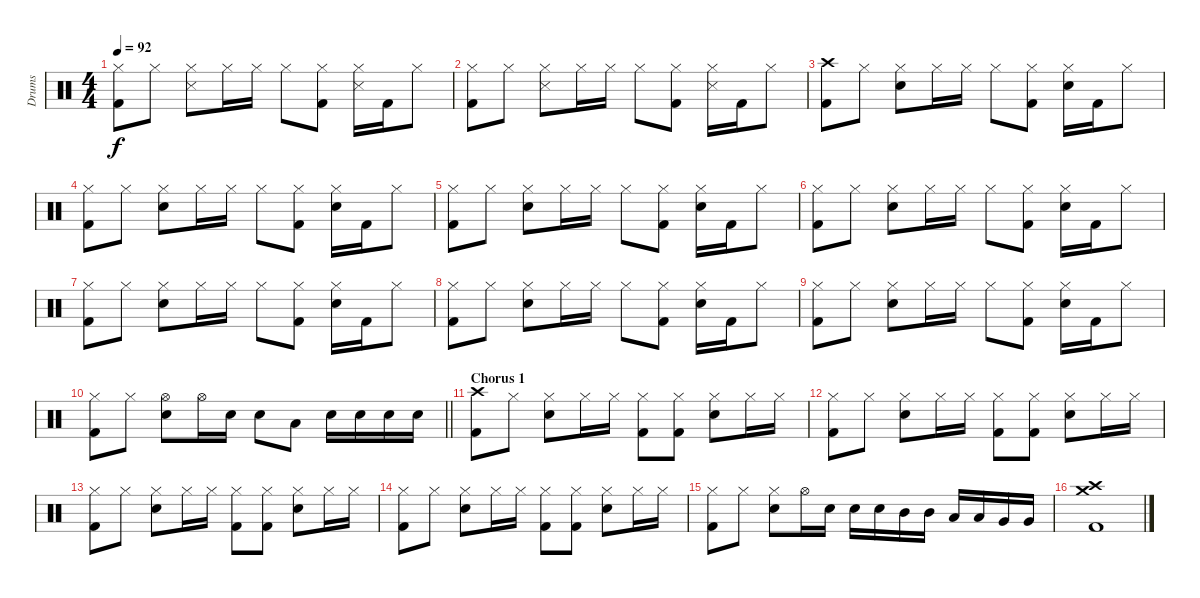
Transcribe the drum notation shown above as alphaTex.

\track ("Drums" "Drums") {instrument percussion}
\staff {score}
\articulation defaults
\ts (4 4)
\tempo 92
\clef neutral
\ks c
("Hi-Hat (closed)" "Kick (hit) 2").8{dy f} "Hi-Hat (closed)".8 ("Hi-Hat (closed)" "Snare (side stick) 3").8 "Hi-Hat (closed)".16 "Hi-Hat (closed)".16 "Hi-Hat (closed)".8 ("Hi-Hat (closed)" "Kick (hit) 2").8 ("Hi-Hat (closed)" "Snare (side stick) 3").16 "Kick (hit) 2".16 "Hi-Hat (closed)".8 |
("Hi-Hat (closed)" "Kick (hit) 2").8 "Hi-Hat (closed)".8 ("Hi-Hat (closed)" "Snare (side stick) 3").8 "Hi-Hat (closed)".16 "Hi-Hat (closed)".16 "Hi-Hat (closed)".8 ("Hi-Hat (closed)" "Kick (hit) 2").8 ("Hi-Hat (closed)" "Snare (side stick) 3").16 "Kick (hit) 2".16 "Hi-Hat (closed)".8 |
("Crash high (hit)" "Kick (hit) 2").8 "Hi-Hat (closed)".8 ("Hi-Hat (closed)" "Snare (hit) 2").8 "Hi-Hat (closed)".16 "Hi-Hat (closed)".16 "Hi-Hat (closed)".8 ("Hi-Hat (closed)" "Kick (hit) 2").8 ("Hi-Hat (closed)" "Snare (hit) 2").16 "Kick (hit) 2".16 "Hi-Hat (closed)".8 |
("Hi-Hat (closed)" "Kick (hit) 2").8 "Hi-Hat (closed)".8 ("Hi-Hat (closed)" "Snare (hit) 2").8 "Hi-Hat (closed)".16 "Hi-Hat (closed)".16 "Hi-Hat (closed)".8 ("Hi-Hat (closed)" "Kick (hit) 2").8 ("Hi-Hat (closed)" "Snare (hit) 2").16 "Kick (hit) 2".16 "Hi-Hat (closed)".8 |
("Hi-Hat (closed)" "Kick (hit) 2").8 "Hi-Hat (closed)".8 ("Hi-Hat (closed)" "Snare (hit) 2").8 "Hi-Hat (closed)".16 "Hi-Hat (closed)".16 "Hi-Hat (closed)".8 ("Hi-Hat (closed)" "Kick (hit) 2").8 ("Hi-Hat (closed)" "Snare (hit) 2").16 "Kick (hit) 2".16 "Hi-Hat (closed)".8 |
("Hi-Hat (closed)" "Kick (hit) 2").8 "Hi-Hat (closed)".8 ("Hi-Hat (closed)" "Snare (hit) 2").8 "Hi-Hat (closed)".16 "Hi-Hat (closed)".16 "Hi-Hat (closed)".8 ("Hi-Hat (closed)" "Kick (hit) 2").8 ("Hi-Hat (closed)" "Snare (hit) 2").16 "Kick (hit) 2".16 "Hi-Hat (closed)".8 |
("Hi-Hat (closed)" "Kick (hit) 2").8 "Hi-Hat (closed)".8 ("Hi-Hat (closed)" "Snare (hit) 2").8 "Hi-Hat (closed)".16 "Hi-Hat (closed)".16 "Hi-Hat (closed)".8 ("Hi-Hat (closed)" "Kick (hit) 2").8 ("Hi-Hat (closed)" "Snare (hit) 2").16 "Kick (hit) 2".16 "Hi-Hat (closed)".8 |
("Hi-Hat (closed)" "Kick (hit) 2").8 "Hi-Hat (closed)".8 ("Hi-Hat (closed)" "Snare (hit) 2").8 "Hi-Hat (closed)".16 "Hi-Hat (closed)".16 "Hi-Hat (closed)".8 ("Hi-Hat (closed)" "Kick (hit) 2").8 ("Hi-Hat (closed)" "Snare (hit) 2").16 "Kick (hit) 2".16 "Hi-Hat (closed)".8 |
("Hi-Hat (closed)" "Kick (hit) 2").8 "Hi-Hat (closed)".8 ("Hi-Hat (closed)" "Snare (hit) 2").8 "Hi-Hat (closed)".16 "Hi-Hat (closed)".16 "Hi-Hat (closed)".8 ("Hi-Hat (closed)" "Kick (hit) 2").8 ("Hi-Hat (closed)" "Snare (hit) 2").16 "Kick (hit) 2".16 "Hi-Hat (closed)".8 |
\barLineRight lightlight
("Hi-Hat (closed)" "Kick (hit) 2").8 "Hi-Hat (closed)".8 ("Hi-Hat (open)" "Snare (hit) 2").8 "Hi-Hat (open)".16 "Snare (hit) 2".16 "Snare (hit) 2".8 "Low Tom (hit)".8 "Snare (hit) 2".16 "Snare (hit) 2".16 "Snare (hit) 2".16 "Snare (hit) 2".16 |
\section ("" "Chorus 1")
("Crash high (hit)" "Kick (hit) 2").8 "Hi-Hat (closed)".8 ("Hi-Hat (closed)" "Snare (hit) 2").8 "Hi-Hat (closed)".16 "Hi-Hat (closed)".16 ("Hi-Hat (closed)" "Kick (hit) 2").8 ("Hi-Hat (closed)" "Kick (hit) 2").8 ("Hi-Hat (closed)" "Snare (hit) 2").8 "Hi-Hat (closed)".16 "Hi-Hat (closed)".16 |
("Hi-Hat (closed)" "Kick (hit) 2").8 "Hi-Hat (closed)".8 ("Hi-Hat (closed)" "Snare (hit) 2").8 "Hi-Hat (closed)".16 "Hi-Hat (closed)".16 ("Hi-Hat (closed)" "Kick (hit) 2").8 ("Hi-Hat (closed)" "Kick (hit) 2").8 ("Hi-Hat (closed)" "Snare (hit) 2").8 "Hi-Hat (closed)".16 "Hi-Hat (closed)".16 |
("Hi-Hat (closed)" "Kick (hit) 2").8 "Hi-Hat (closed)".8 ("Hi-Hat (closed)" "Snare (hit) 2").8 "Hi-Hat (closed)".16 "Hi-Hat (closed)".16 ("Hi-Hat (closed)" "Kick (hit) 2").8 ("Hi-Hat (closed)" "Kick (hit) 2").8 ("Hi-Hat (closed)" "Snare (hit) 2").8 "Hi-Hat (closed)".16 "Hi-Hat (closed)".16 |
("Hi-Hat (closed)" "Kick (hit) 2").8 "Hi-Hat (closed)".8 ("Hi-Hat (closed)" "Snare (hit) 2").8 "Hi-Hat (closed)".16 "Hi-Hat (closed)".16 ("Hi-Hat (closed)" "Kick (hit) 2").8 ("Hi-Hat (closed)" "Kick (hit) 2").8 ("Hi-Hat (closed)" "Snare (hit) 2").8 "Hi-Hat (closed)".16 "Hi-Hat (closed)".16 |
("Hi-Hat (closed)" "Kick (hit) 2").8 "Hi-Hat (closed)".8 ("Hi-Hat (closed)" "Snare (hit) 2").8 "Hi-Hat (open)".16 "Snare (hit) 2".16 "Snare (hit) 2".16 "Snare (hit) 2".16 "Mid Tom (hit)".16 "Mid Tom (hit)".16 "Low Tom (hit)".16 "Low Tom (hit)".16 "Very Low Tom (hit)".16 "Very Low Tom (hit)".16 |
("Crash medium (hit)" "Crash high (hit)" "Kick (hit) 2").1
